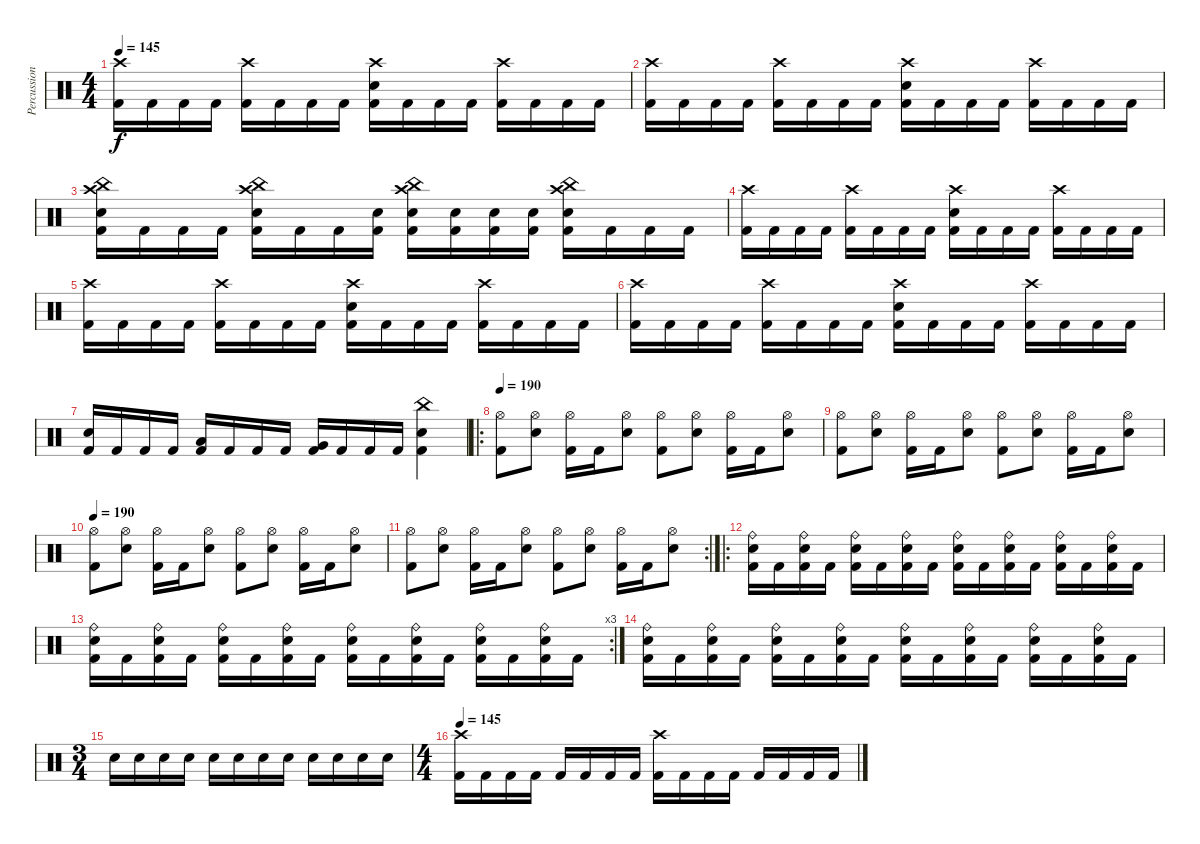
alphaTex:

\track ("Percussion" "Percussion") {instrument percussion}
\staff {score}
\articulation defaults
\ts (4 4)
\tempo 145
\clef neutral
\ks c
("Crash high (hit)" "Kick (hit) 2").16{dy f} "Kick (hit) 2".16 "Kick (hit) 2".16 "Kick (hit) 2".16 ("Crash high (hit)" "Kick (hit) 2").16 "Kick (hit) 2".16 "Kick (hit) 2".16 "Kick (hit) 2".16 ("Crash high (hit)" "Electric Snare (hit)" "Kick (hit) 2").16 "Kick (hit) 2".16 "Kick (hit) 2".16 "Kick (hit) 2".16 ("Crash high (hit)" "Kick (hit) 2").16 "Kick (hit) 2".16 "Kick (hit) 2".16 "Kick (hit) 2".16 |
("Crash high (hit)" "Kick (hit) 2").16 "Kick (hit) 2".16 "Kick (hit) 2".16 "Kick (hit) 2".16 ("Crash high (hit)" "Kick (hit) 2").16 "Kick (hit) 2".16 "Kick (hit) 2".16 "Kick (hit) 2".16 ("Crash high (hit)" "Electric Snare (hit)" "Kick (hit) 2").16 "Kick (hit) 2".16 "Kick (hit) 2".16 "Kick (hit) 2".16 ("Crash high (hit)" "Kick (hit) 2").16 "Kick (hit) 2".16 "Kick (hit) 2".16 "Kick (hit) 2".16 |
("Crash high (hit)" "China (hit)" "Electric Snare (hit)" "Kick (hit) 2").16 "Kick (hit) 2".16 "Kick (hit) 2".16 "Kick (hit) 2".16 ("Crash high (hit)" "China (hit)" "Electric Snare (hit)" "Kick (hit) 2").16 "Kick (hit) 2".16 "Kick (hit) 2".16 ("Electric Snare (hit)" "Kick (hit) 2").16 ("Crash high (hit)" "China (hit)" "Electric Snare (hit)" "Kick (hit) 2").16 ("Electric Snare (hit)" "Kick (hit) 2").16 ("Electric Snare (hit)" "Kick (hit) 2").16 ("Electric Snare (hit)" "Kick (hit) 2").16 ("Crash high (hit)" "China (hit)" "Electric Snare (hit)" "Kick (hit) 2").16 "Kick (hit) 2".16 "Kick (hit) 2".16 "Kick (hit) 2".16 |
("Crash high (hit)" "Kick (hit) 2").16 "Kick (hit) 2".16 "Kick (hit) 2".16 "Kick (hit) 2".16 ("Crash high (hit)" "Kick (hit) 2").16 "Kick (hit) 2".16 "Kick (hit) 2".16 "Kick (hit) 2".16 ("Crash high (hit)" "Electric Snare (hit)" "Kick (hit) 2").16 "Kick (hit) 2".16 "Kick (hit) 2".16 "Kick (hit) 2".16 ("Crash high (hit)" "Kick (hit) 2").16 "Kick (hit) 2".16 "Kick (hit) 2".16 "Kick (hit) 2".16 |
("Crash high (hit)" "Kick (hit) 2").16 "Kick (hit) 2".16 "Kick (hit) 2".16 "Kick (hit) 2".16 ("Crash high (hit)" "Kick (hit) 2").16 "Kick (hit) 2".16 "Kick (hit) 2".16 "Kick (hit) 2".16 ("Crash high (hit)" "Electric Snare (hit)" "Kick (hit) 2").16 "Kick (hit) 2".16 "Kick (hit) 2".16 "Kick (hit) 2".16 ("Crash high (hit)" "Kick (hit) 2").16 "Kick (hit) 2".16 "Kick (hit) 2".16 "Kick (hit) 2".16 |
("Crash high (hit)" "Kick (hit) 2").16 "Kick (hit) 2".16 "Kick (hit) 2".16 "Kick (hit) 2".16 ("Crash high (hit)" "Kick (hit) 2").16 "Kick (hit) 2".16 "Kick (hit) 2".16 "Kick (hit) 2".16 ("Crash high (hit)" "Electric Snare (hit)" "Kick (hit) 2").16 "Kick (hit) 2".16 "Kick (hit) 2".16 "Kick (hit) 2".16 ("Crash high (hit)" "Kick (hit) 2").16 "Kick (hit) 2".16 "Kick (hit) 2".16 "Kick (hit) 2".16 |
("Electric Snare (hit)" "Kick (hit) 2").16 "Kick (hit) 2".16 "Kick (hit) 2".16 "Kick (hit) 2".16 ("Low Tom (hit)" "Kick (hit) 2").16 "Kick (hit) 2".16 "Kick (hit) 2".16 "Kick (hit) 2".16 ("Very Low Tom (hit)" "Kick (hit) 2").16 "Kick (hit) 2".16 "Kick (hit) 2".16 "Kick (hit) 2".16 ("China (hit)" "Electric Snare (hit)" "Kick (hit) 2").4 |
\ro
\tempo 205
\tempo 190
("Hi-Hat (open)" "Kick (hit) 2").8 ("Hi-Hat (open)" "Electric Snare (hit)").8 ("Hi-Hat (open)" "Kick (hit) 2").16 "Kick (hit) 2".16 ("Hi-Hat (open)" "Electric Snare (hit)").8 ("Hi-Hat (open)" "Kick (hit) 2").8 ("Hi-Hat (open)" "Electric Snare (hit)").8 ("Hi-Hat (open)" "Kick (hit) 2").16 "Kick (hit) 2".16 ("Hi-Hat (open)" "Electric Snare (hit)").8 |
("Hi-Hat (open)" "Kick (hit) 2").8 ("Hi-Hat (open)" "Electric Snare (hit)").8 ("Hi-Hat (open)" "Kick (hit) 2").16 "Kick (hit) 2".16 ("Hi-Hat (open)" "Electric Snare (hit)").8 ("Hi-Hat (open)" "Kick (hit) 2").8 ("Hi-Hat (open)" "Electric Snare (hit)").8 ("Hi-Hat (open)" "Kick (hit) 2").16 "Kick (hit) 2".16 ("Hi-Hat (open)" "Electric Snare (hit)").8 |
\tempo 190
("Hi-Hat (open)" "Kick (hit) 2").8 ("Hi-Hat (open)" "Electric Snare (hit)").8 ("Hi-Hat (open)" "Kick (hit) 2").16 "Kick (hit) 2".16 ("Hi-Hat (open)" "Electric Snare (hit)").8 ("Hi-Hat (open)" "Kick (hit) 2").8 ("Hi-Hat (open)" "Electric Snare (hit)").8 ("Hi-Hat (open)" "Kick (hit) 2").16 "Kick (hit) 2".16 ("Hi-Hat (open)" "Electric Snare (hit)").8 |
\rc 2
("Hi-Hat (open)" "Kick (hit) 2").8 ("Hi-Hat (open)" "Electric Snare (hit)").8 ("Hi-Hat (open)" "Kick (hit) 2").16 "Kick (hit) 2".16 ("Hi-Hat (open)" "Electric Snare (hit)").8 ("Hi-Hat (open)" "Kick (hit) 2").8 ("Hi-Hat (open)" "Electric Snare (hit)").8 ("Hi-Hat (open)" "Kick (hit) 2").16 "Kick (hit) 2".16 ("Hi-Hat (open)" "Electric Snare (hit)").8 |
\ro
("Ride (bell)" "Electric Snare (hit)" "Kick (hit) 2").16 "Kick (hit) 2".16 ("Ride (bell)" "Electric Snare (hit)" "Kick (hit) 2").16 "Kick (hit) 2".16 ("Ride (bell)" "Electric Snare (hit)" "Kick (hit) 2").16 "Kick (hit) 2".16 ("Ride (bell)" "Electric Snare (hit)" "Kick (hit) 2").16 "Kick (hit) 2".16 ("Ride (bell)" "Electric Snare (hit)" "Kick (hit) 2").16 "Kick (hit) 2".16 ("Ride (bell)" "Electric Snare (hit)" "Kick (hit) 2").16 "Kick (hit) 2".16 ("Ride (bell)" "Electric Snare (hit)" "Kick (hit) 2").16 "Kick (hit) 2".16 ("Ride (bell)" "Electric Snare (hit)" "Kick (hit) 2").16 "Kick (hit) 2".16 |
\rc 3
("Ride (bell)" "Electric Snare (hit)" "Kick (hit) 2").16 "Kick (hit) 2".16 ("Ride (bell)" "Electric Snare (hit)" "Kick (hit) 2").16 "Kick (hit) 2".16 ("Ride (bell)" "Electric Snare (hit)" "Kick (hit) 2").16 "Kick (hit) 2".16 ("Ride (bell)" "Electric Snare (hit)" "Kick (hit) 2").16 "Kick (hit) 2".16 ("Ride (bell)" "Electric Snare (hit)" "Kick (hit) 2").16 "Kick (hit) 2".16 ("Ride (bell)" "Electric Snare (hit)" "Kick (hit) 2").16 "Kick (hit) 2".16 ("Ride (bell)" "Electric Snare (hit)" "Kick (hit) 2").16 "Kick (hit) 2".16 ("Ride (bell)" "Electric Snare (hit)" "Kick (hit) 2").16 "Kick (hit) 2".16 |
("Ride (bell)" "Electric Snare (hit)" "Kick (hit) 2").16 "Kick (hit) 2".16 ("Ride (bell)" "Electric Snare (hit)" "Kick (hit) 2").16 "Kick (hit) 2".16 ("Ride (bell)" "Electric Snare (hit)" "Kick (hit) 2").16 "Kick (hit) 2".16 ("Ride (bell)" "Electric Snare (hit)" "Kick (hit) 2").16 "Kick (hit) 2".16 ("Ride (bell)" "Electric Snare (hit)" "Kick (hit) 2").16 "Kick (hit) 2".16 ("Ride (bell)" "Electric Snare (hit)" "Kick (hit) 2").16 "Kick (hit) 2".16 ("Ride (bell)" "Electric Snare (hit)" "Kick (hit) 2").16 "Kick (hit) 2".16 ("Ride (bell)" "Electric Snare (hit)" "Kick (hit) 2").16 "Kick (hit) 2".16 |
\ts (3 4)
"Electric Snare (hit)".16 "Electric Snare (hit)".16 "Electric Snare (hit)".16 "Electric Snare (hit)".16 "Electric Snare (hit)".16 "Electric Snare (hit)".16 "Electric Snare (hit)".16 "Electric Snare (hit)".16 "Electric Snare (hit)".16 "Electric Snare (hit)".16 "Electric Snare (hit)".16 "Electric Snare (hit)".16 |
\ts (4 4)
\tempo 145
("Crash high (hit)" "Kick (hit) 2").16 "Kick (hit) 2".16 "Kick (hit) 2".16 "Kick (hit) 2".16 "Kick (hit) 2".16 "Kick (hit) 2".16 "Kick (hit) 2".16 "Kick (hit) 2".16 ("Crash high (hit)" "Kick (hit) 2").16 "Kick (hit) 2".16 "Kick (hit) 2".16 "Kick (hit) 2".16 "Kick (hit) 2".16 "Kick (hit) 2".16 "Kick (hit) 2".16 "Kick (hit) 2".16
